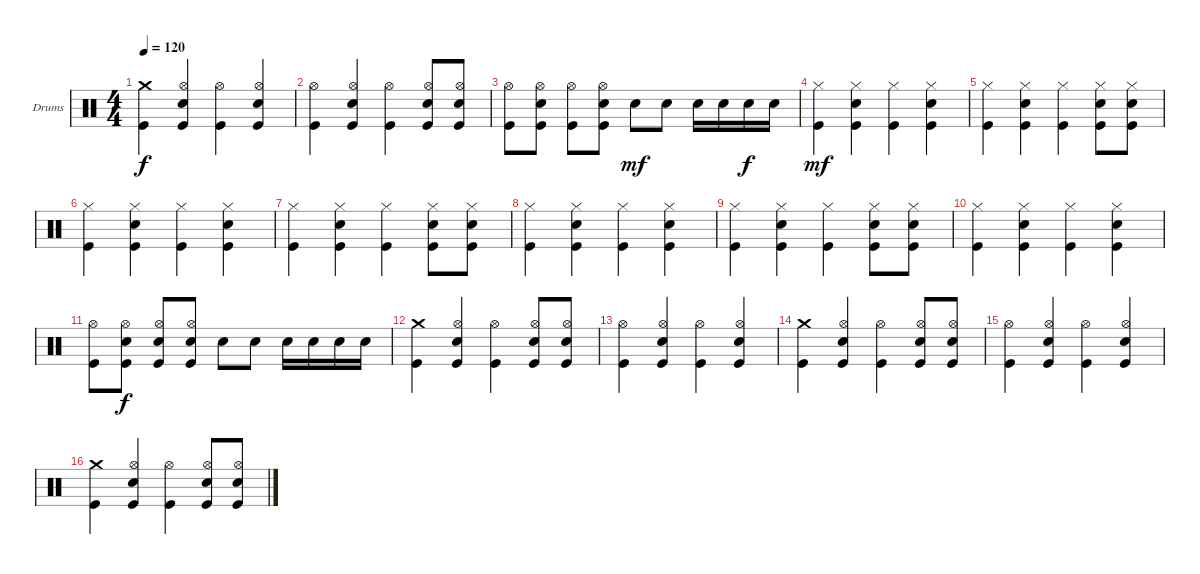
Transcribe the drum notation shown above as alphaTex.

\bracketExtendMode groupsimilarinstruments
\firstSystemTrackNameOrientation horizontal
\otherSystemsTrackNameOrientation horizontal
\track ("Drumkit" "Drums") {instrument percussion}
\staff {score}
\articulation defaults
\ts (4 4)
\tempo 120
\clef neutral
\ks c
("Kick (hit)" "Crash medium (hit)").4{dy f} ("Kick (hit)" "Hi-Hat (open)" "Snare (hit) 2").4 ("Kick (hit)" "Hi-Hat (open)").4 ("Kick (hit)" "Hi-Hat (open)" "Snare (hit) 2").4 |
("Kick (hit)" "Hi-Hat (open)").4 ("Kick (hit)" "Hi-Hat (open)" "Snare (hit) 2").4 ("Kick (hit)" "Hi-Hat (open)").4 ("Kick (hit)" "Hi-Hat (open)" "Snare (hit) 2").8 ("Kick (hit)" "Hi-Hat (open)" "Snare (hit) 2").8 |
("Hi-Hat (open)" "Kick (hit)").8 ("Hi-Hat (open)" "Snare (hit) 2" "Kick (hit)").8 ("Hi-Hat (open)" "Kick (hit)").8 ("Hi-Hat (open)" "Snare (hit) 2" "Kick (hit)").8 "Snare (hit) 2".8{dy mf} "Snare (hit) 2".8 "Snare (hit) 2".16 "Snare (hit) 2".16 "Snare (hit) 2".16{dy f} "Snare (hit) 2".16 |
("Hi-Hat (closed)" "Kick (hit)").4{dy mf} ("Hi-Hat (closed)" "Kick (hit)" "Snare (hit) 2").4 ("Hi-Hat (closed)" "Kick (hit)").4 ("Hi-Hat (closed)" "Kick (hit)" "Snare (hit) 2").4 |
("Hi-Hat (closed)" "Kick (hit)").4 ("Hi-Hat (closed)" "Kick (hit)" "Snare (hit) 2").4 ("Hi-Hat (closed)" "Kick (hit)").4 ("Hi-Hat (closed)" "Kick (hit)" "Snare (hit) 2").8 ("Hi-Hat (closed)" "Kick (hit)" "Snare (hit) 2").8 |
("Hi-Hat (closed)" "Kick (hit)").4 ("Hi-Hat (closed)" "Kick (hit)" "Snare (hit) 2").4 ("Hi-Hat (closed)" "Kick (hit)").4 ("Hi-Hat (closed)" "Kick (hit)" "Snare (hit) 2").4 |
("Hi-Hat (closed)" "Kick (hit)").4 ("Hi-Hat (closed)" "Kick (hit)" "Snare (hit) 2").4 ("Hi-Hat (closed)" "Kick (hit)").4 ("Hi-Hat (closed)" "Kick (hit)" "Snare (hit) 2").8 ("Hi-Hat (closed)" "Kick (hit)" "Snare (hit) 2").8 |
("Hi-Hat (closed)" "Kick (hit)").4 ("Hi-Hat (closed)" "Kick (hit)" "Snare (hit) 2").4 ("Hi-Hat (closed)" "Kick (hit)").4 ("Hi-Hat (closed)" "Kick (hit)" "Snare (hit) 2").4 |
("Hi-Hat (closed)" "Kick (hit)").4 ("Hi-Hat (closed)" "Kick (hit)" "Snare (hit) 2").4 ("Hi-Hat (closed)" "Kick (hit)").4 ("Hi-Hat (closed)" "Kick (hit)" "Snare (hit) 2").8 ("Hi-Hat (closed)" "Kick (hit)" "Snare (hit) 2").8 |
("Hi-Hat (closed)" "Kick (hit)").4 ("Hi-Hat (closed)" "Kick (hit)" "Snare (hit) 2").4 ("Hi-Hat (closed)" "Kick (hit)").4 ("Hi-Hat (closed)" "Kick (hit)" "Snare (hit) 2").4 |
("Hi-Hat (open)" "Kick (hit)").8 ("Hi-Hat (open)" "Kick (hit)" "Snare (hit) 2").8{dy f} ("Hi-Hat (open)" "Snare (hit) 2" "Kick (hit)").8 ("Hi-Hat (open)" "Kick (hit)" "Snare (hit) 2").8 "Snare (hit) 2".8 "Snare (hit) 2".8 "Snare (hit) 2".16 "Snare (hit) 2".16 "Snare (hit) 2".16 "Snare (hit) 2".16 |
("Kick (hit)" "Crash medium (hit)").4 ("Kick (hit)" "Hi-Hat (open)" "Snare (hit) 2").4 ("Kick (hit)" "Hi-Hat (open)").4 ("Kick (hit)" "Hi-Hat (open)" "Snare (hit) 2").8 ("Kick (hit)" "Hi-Hat (open)" "Snare (hit) 2").8 |
("Kick (hit)" "Hi-Hat (open)").4 ("Kick (hit)" "Hi-Hat (open)" "Snare (hit) 2").4 ("Kick (hit)" "Hi-Hat (open)").4 ("Kick (hit)" "Hi-Hat (open)" "Snare (hit) 2").4 |
("Kick (hit)" "Crash medium (hit)").4 ("Kick (hit)" "Hi-Hat (open)" "Snare (hit) 2").4 ("Kick (hit)" "Hi-Hat (open)").4 ("Kick (hit)" "Hi-Hat (open)" "Snare (hit) 2").8 ("Kick (hit)" "Hi-Hat (open)" "Snare (hit) 2").8 |
("Kick (hit)" "Hi-Hat (open)").4 ("Kick (hit)" "Hi-Hat (open)" "Snare (hit) 2").4 ("Kick (hit)" "Hi-Hat (open)").4 ("Kick (hit)" "Hi-Hat (open)" "Snare (hit) 2").4 |
("Kick (hit)" "Crash medium (hit)").4 ("Kick (hit)" "Hi-Hat (open)" "Snare (hit) 2").4 ("Kick (hit)" "Hi-Hat (open)").4 ("Kick (hit)" "Hi-Hat (open)" "Snare (hit) 2").8 ("Kick (hit)" "Hi-Hat (open)" "Snare (hit) 2").8
